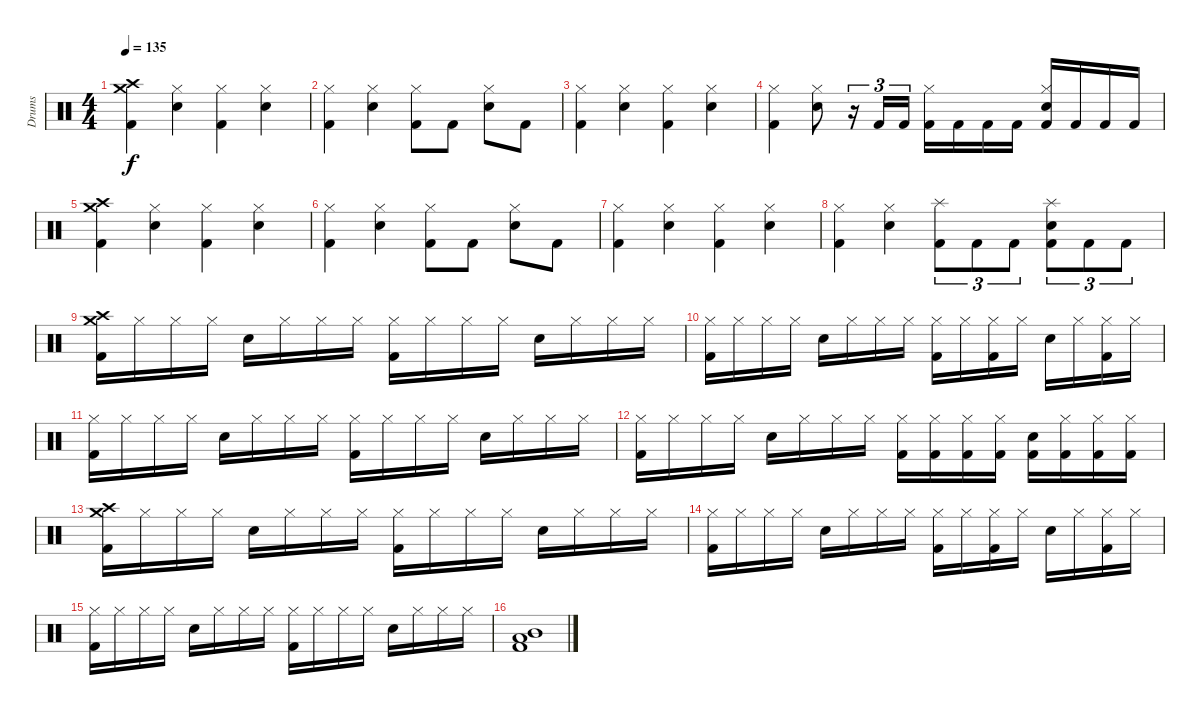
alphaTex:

\track ("Drums" "Drums") {instrument percussion}
\staff {score}
\articulation defaults
\ts (4 4)
\tempo 135
\clef neutral
\ks c
("Crash high (hit)" "Crash medium (hit)" "Kick (hit) 2").4{dy f} ("Hi-Hat (closed)" "Electric Snare (hit)").4 ("Hi-Hat (closed)" "Kick (hit) 2").4 ("Hi-Hat (closed)" "Electric Snare (hit)").4 |
("Hi-Hat (closed)" "Kick (hit) 2").4 ("Hi-Hat (closed)" "Electric Snare (hit)").4 ("Hi-Hat (closed)" "Kick (hit) 2").8 "Kick (hit) 2".8 ("Hi-Hat (closed)" "Electric Snare (hit)").8 "Kick (hit) 2".8 |
("Hi-Hat (closed)" "Kick (hit) 2").4 ("Hi-Hat (closed)" "Electric Snare (hit)").4 ("Hi-Hat (closed)" "Kick (hit) 2").4 ("Hi-Hat (closed)" "Electric Snare (hit)").4 |
("Hi-Hat (closed)" "Kick (hit) 2").4 ("Hi-Hat (closed)" "Electric Snare (hit)").8 r.16{tu (3 2)} "Kick (hit) 2".16{tu (3 2)} "Kick (hit) 2".16{tu (3 2)} ("Hi-Hat (closed)" "Kick (hit) 2").16 "Kick (hit) 2".16 "Kick (hit) 2".16 "Kick (hit) 2".16 ("Hi-Hat (closed)" "Electric Snare (hit)" "Kick (hit) 2").16 "Kick (hit) 2".16 "Kick (hit) 2".16 "Kick (hit) 2".16 |
("Crash high (hit)" "Crash medium (hit)" "Kick (hit) 2").4 ("Hi-Hat (closed)" "Electric Snare (hit)").4 ("Hi-Hat (closed)" "Kick (hit) 2").4 ("Hi-Hat (closed)" "Electric Snare (hit)").4 |
("Hi-Hat (closed)" "Kick (hit) 2").4 ("Hi-Hat (closed)" "Electric Snare (hit)").4 ("Hi-Hat (closed)" "Kick (hit) 2").8 "Kick (hit) 2".8 ("Hi-Hat (closed)" "Electric Snare (hit)").8 "Kick (hit) 2".8 |
("Hi-Hat (closed)" "Kick (hit) 2").4 ("Hi-Hat (closed)" "Electric Snare (hit)").4 ("Hi-Hat (closed)" "Kick (hit) 2").4 ("Hi-Hat (closed)" "Electric Snare (hit)").4 |
("Hi-Hat (closed)" "Kick (hit) 2").4 ("Hi-Hat (closed)" "Electric Snare (hit)").4 ("Splash (hit)" "Kick (hit) 2").8{tu (3 2)} "Kick (hit) 2".8{tu (3 2)} "Kick (hit) 2".8{tu (3 2)} ("Splash (hit)" "Electric Snare (hit)" "Kick (hit) 2").8{tu (3 2)} "Kick (hit) 2".8{tu (3 2)} "Kick (hit) 2".8{tu (3 2)} |
("Crash medium (hit)" "Crash high (hit)" "Kick (hit) 2").16 "Hi-Hat (closed)".16 "Hi-Hat (closed)".16 "Hi-Hat (closed)".16 "Electric Snare (hit)".16 "Hi-Hat (closed)".16 "Hi-Hat (closed)".16 "Hi-Hat (closed)".16 ("Hi-Hat (closed)" "Kick (hit) 2").16 "Hi-Hat (closed)".16 "Hi-Hat (closed)".16 "Hi-Hat (closed)".16 "Electric Snare (hit)".16 "Hi-Hat (closed)".16 "Hi-Hat (closed)".16 "Hi-Hat (closed)".16 |
("Hi-Hat (closed)" "Kick (hit) 2").16 "Hi-Hat (closed)".16 "Hi-Hat (closed)".16 "Hi-Hat (closed)".16 "Electric Snare (hit)".16 "Hi-Hat (closed)".16 "Hi-Hat (closed)".16 "Hi-Hat (closed)".16 ("Hi-Hat (closed)" "Kick (hit) 2").16 "Hi-Hat (closed)".16 ("Hi-Hat (closed)" "Kick (hit) 2").16 "Hi-Hat (closed)".16 "Electric Snare (hit)".16 "Hi-Hat (closed)".16 ("Hi-Hat (closed)" "Kick (hit) 2").16 "Hi-Hat (closed)".16 |
("Hi-Hat (closed)" "Kick (hit) 2").16 "Hi-Hat (closed)".16 "Hi-Hat (closed)".16 "Hi-Hat (closed)".16 "Electric Snare (hit)".16 "Hi-Hat (closed)".16 "Hi-Hat (closed)".16 "Hi-Hat (closed)".16 ("Hi-Hat (closed)" "Kick (hit) 2").16 "Hi-Hat (closed)".16 "Hi-Hat (closed)".16 "Hi-Hat (closed)".16 "Electric Snare (hit)".16 "Hi-Hat (closed)".16 "Hi-Hat (closed)".16 "Hi-Hat (closed)".16 |
("Hi-Hat (closed)" "Kick (hit) 2").16 "Hi-Hat (closed)".16 "Hi-Hat (closed)".16 "Hi-Hat (closed)".16 "Electric Snare (hit)".16 "Hi-Hat (closed)".16 "Hi-Hat (closed)".16 "Hi-Hat (closed)".16 ("Hi-Hat (closed)" "Kick (hit) 2").16 ("Hi-Hat (closed)" "Kick (hit) 2").16 ("Hi-Hat (closed)" "Kick (hit) 2").16 ("Hi-Hat (closed)" "Kick (hit) 2").16 ("Electric Snare (hit)" "Kick (hit) 2").16 ("Hi-Hat (closed)" "Kick (hit) 2").16 ("Hi-Hat (closed)" "Kick (hit) 2").16 ("Hi-Hat (closed)" "Kick (hit) 2").16 |
("Crash medium (hit)" "Crash high (hit)" "Kick (hit) 2").16 "Hi-Hat (closed)".16 "Hi-Hat (closed)".16 "Hi-Hat (closed)".16 "Electric Snare (hit)".16 "Hi-Hat (closed)".16 "Hi-Hat (closed)".16 "Hi-Hat (closed)".16 ("Hi-Hat (closed)" "Kick (hit) 2").16 "Hi-Hat (closed)".16 "Hi-Hat (closed)".16 "Hi-Hat (closed)".16 "Electric Snare (hit)".16 "Hi-Hat (closed)".16 "Hi-Hat (closed)".16 "Hi-Hat (closed)".16 |
("Hi-Hat (closed)" "Kick (hit) 2").16 "Hi-Hat (closed)".16 "Hi-Hat (closed)".16 "Hi-Hat (closed)".16 "Electric Snare (hit)".16 "Hi-Hat (closed)".16 "Hi-Hat (closed)".16 "Hi-Hat (closed)".16 ("Hi-Hat (closed)" "Kick (hit) 2").16 "Hi-Hat (closed)".16 ("Hi-Hat (closed)" "Kick (hit) 2").16 "Hi-Hat (closed)".16 "Electric Snare (hit)".16 "Hi-Hat (closed)".16 ("Hi-Hat (closed)" "Kick (hit) 2").16 "Hi-Hat (closed)".16 |
("Hi-Hat (closed)" "Kick (hit) 2").16 "Hi-Hat (closed)".16 "Hi-Hat (closed)".16 "Hi-Hat (closed)".16 "Electric Snare (hit)".16 "Hi-Hat (closed)".16 "Hi-Hat (closed)".16 "Hi-Hat (closed)".16 ("Hi-Hat (closed)" "Kick (hit) 2").16 "Hi-Hat (closed)".16 "Hi-Hat (closed)".16 "Hi-Hat (closed)".16 "Electric Snare (hit)".16 "Hi-Hat (closed)".16 "Hi-Hat (closed)".16 "Hi-Hat (closed)".16 |
("Mid Tom (hit)" "Low Floor Tom (hit)" "Kick (hit) 2").1
